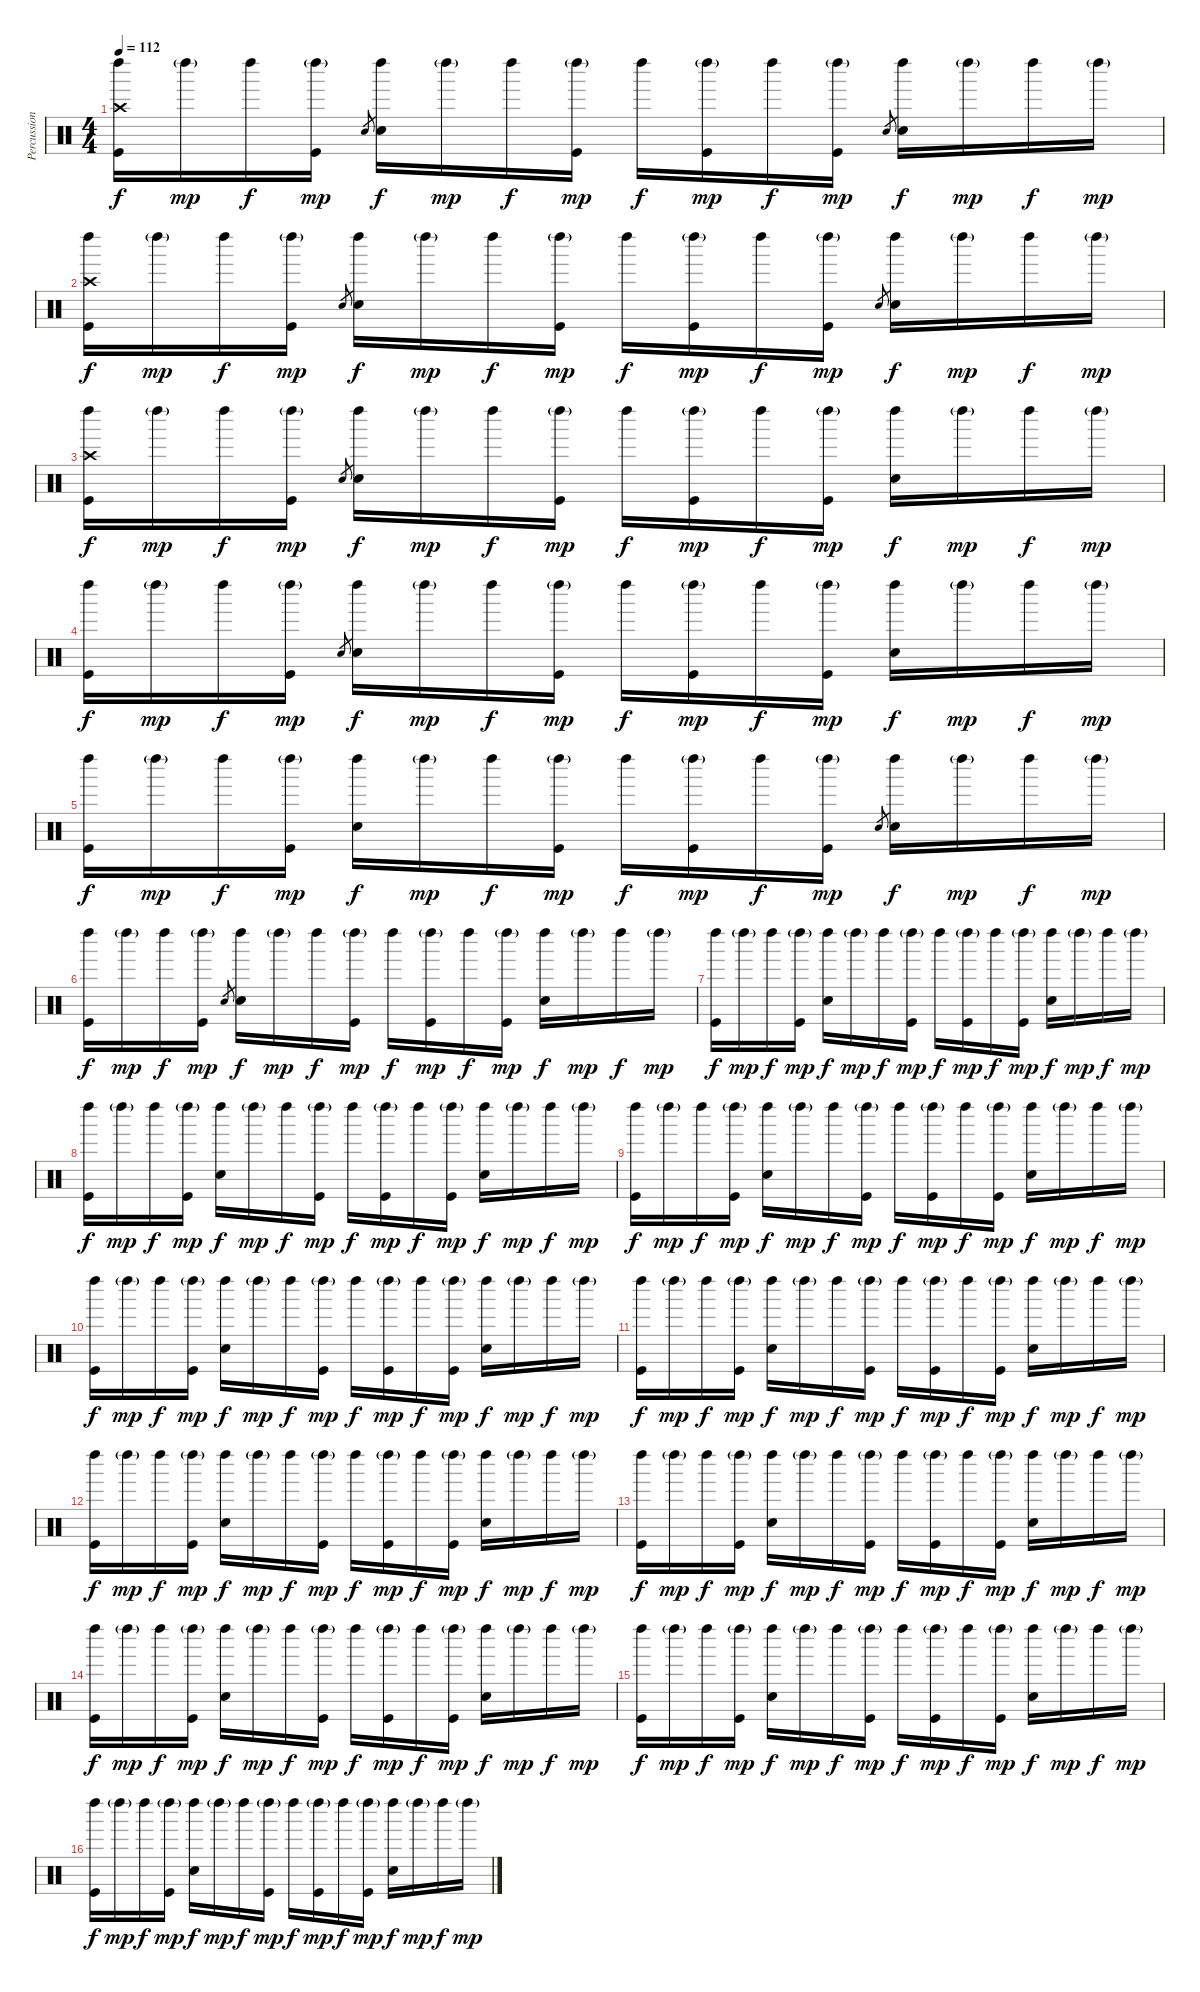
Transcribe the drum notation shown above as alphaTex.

\track ("Percussion" "Percussion") {instrument percussion}
\staff {score}
\articulation defaults
\ts (4 4)
\tempo 112
\clef neutral
\ks c
("Crash high (hit)" "Left Maraca (hit)" "Kick (hit)").16{dy f} "Left Maraca (hit)"{g}.16{dy mp} "Left Maraca (hit)".16{dy f} ("Left Maraca (hit)"{g} "Kick (hit)").16{dy mp} "Snare (hit) 2".8{gr} ("Left Maraca (hit)" "Snare (hit) 2").16{dy f} "Left Maraca (hit)"{g}.16{dy mp} "Left Maraca (hit)".16{dy f} ("Left Maraca (hit)"{g} "Kick (hit)").16{dy mp} "Left Maraca (hit)".16{dy f} ("Left Maraca (hit)"{g} "Kick (hit)").16{dy mp} "Left Maraca (hit)".16{dy f} ("Left Maraca (hit)"{g} "Kick (hit)").16{dy mp} "Snare (hit) 2".8{gr} ("Left Maraca (hit)" "Snare (hit) 2").16{dy f} "Left Maraca (hit)"{g}.16{dy mp} "Left Maraca (hit)".16{dy f} "Left Maraca (hit)"{g}.16{dy mp} |
("Crash high (hit)" "Left Maraca (hit)" "Kick (hit)").16{dy f} "Left Maraca (hit)"{g}.16{dy mp} "Left Maraca (hit)".16{dy f} ("Left Maraca (hit)"{g} "Kick (hit)").16{dy mp} "Snare (hit) 2".8{gr} ("Left Maraca (hit)" "Snare (hit) 2").16{dy f} "Left Maraca (hit)"{g}.16{dy mp} "Left Maraca (hit)".16{dy f} ("Left Maraca (hit)"{g} "Kick (hit)").16{dy mp} "Left Maraca (hit)".16{dy f} ("Left Maraca (hit)"{g} "Kick (hit)").16{dy mp} "Left Maraca (hit)".16{dy f} ("Left Maraca (hit)"{g} "Kick (hit)").16{dy mp} "Snare (hit) 2".8{gr} ("Left Maraca (hit)" "Snare (hit) 2").16{dy f} "Left Maraca (hit)"{g}.16{dy mp} "Left Maraca (hit)".16{dy f} "Left Maraca (hit)"{g}.16{dy mp} |
("Crash high (hit)" "Left Maraca (hit)" "Kick (hit)").16{dy f} "Left Maraca (hit)"{g}.16{dy mp} "Left Maraca (hit)".16{dy f} ("Left Maraca (hit)"{g} "Kick (hit)").16{dy mp} "Snare (hit) 2".8{gr} ("Left Maraca (hit)" "Snare (hit) 2").16{dy f} "Left Maraca (hit)"{g}.16{dy mp} "Left Maraca (hit)".16{dy f} ("Left Maraca (hit)"{g} "Kick (hit)").16{dy mp} "Left Maraca (hit)".16{dy f} ("Left Maraca (hit)"{g} "Kick (hit)").16{dy mp} "Left Maraca (hit)".16{dy f} ("Left Maraca (hit)"{g} "Kick (hit)").16{dy mp} ("Left Maraca (hit)" "Snare (hit) 2").16{dy f} "Left Maraca (hit)"{g}.16{dy mp} "Left Maraca (hit)".16{dy f} "Left Maraca (hit)"{g}.16{dy mp} |
("Left Maraca (hit)" "Kick (hit)").16{dy f} "Left Maraca (hit)"{g}.16{dy mp} "Left Maraca (hit)".16{dy f} ("Left Maraca (hit)"{g} "Kick (hit)").16{dy mp} "Snare (hit) 2".8{gr} ("Left Maraca (hit)" "Snare (hit) 2").16{dy f} "Left Maraca (hit)"{g}.16{dy mp} "Left Maraca (hit)".16{dy f} ("Left Maraca (hit)"{g} "Kick (hit)").16{dy mp} "Left Maraca (hit)".16{dy f} ("Left Maraca (hit)"{g} "Kick (hit)").16{dy mp} "Left Maraca (hit)".16{dy f} ("Left Maraca (hit)"{g} "Kick (hit)").16{dy mp} ("Left Maraca (hit)" "Snare (hit) 2").16{dy f} "Left Maraca (hit)"{g}.16{dy mp} "Left Maraca (hit)".16{dy f} "Left Maraca (hit)"{g}.16{dy mp} |
("Left Maraca (hit)" "Kick (hit)").16{dy f} "Left Maraca (hit)"{g}.16{dy mp} "Left Maraca (hit)".16{dy f} ("Left Maraca (hit)"{g} "Kick (hit)").16{dy mp} ("Left Maraca (hit)" "Snare (hit) 2").16{dy f} "Left Maraca (hit)"{g}.16{dy mp} "Left Maraca (hit)".16{dy f} ("Left Maraca (hit)"{g} "Kick (hit)").16{dy mp} "Left Maraca (hit)".16{dy f} ("Left Maraca (hit)"{g} "Kick (hit)").16{dy mp} "Left Maraca (hit)".16{dy f} ("Left Maraca (hit)"{g} "Kick (hit)").16{dy mp} "Snare (hit) 2".8{gr} ("Left Maraca (hit)" "Snare (hit) 2").16{dy f} "Left Maraca (hit)"{g}.16{dy mp} "Left Maraca (hit)".16{dy f} "Left Maraca (hit)"{g}.16{dy mp} |
("Left Maraca (hit)" "Kick (hit)").16{dy f} "Left Maraca (hit)"{g}.16{dy mp} "Left Maraca (hit)".16{dy f} ("Left Maraca (hit)"{g} "Kick (hit)").16{dy mp} "Snare (hit) 2".8{gr} ("Left Maraca (hit)" "Snare (hit) 2").16{dy f} "Left Maraca (hit)"{g}.16{dy mp} "Left Maraca (hit)".16{dy f} ("Left Maraca (hit)"{g} "Kick (hit)").16{dy mp} "Left Maraca (hit)".16{dy f} ("Left Maraca (hit)"{g} "Kick (hit)").16{dy mp} "Left Maraca (hit)".16{dy f} ("Left Maraca (hit)"{g} "Kick (hit)").16{dy mp} ("Left Maraca (hit)" "Snare (hit) 2").16{dy f} "Left Maraca (hit)"{g}.16{dy mp} "Left Maraca (hit)".16{dy f} "Left Maraca (hit)"{g}.16{dy mp} |
("Left Maraca (hit)" "Kick (hit)").16{dy f} "Left Maraca (hit)"{g}.16{dy mp} "Left Maraca (hit)".16{dy f} ("Left Maraca (hit)"{g} "Kick (hit)").16{dy mp} ("Left Maraca (hit)" "Snare (hit) 2").16{dy f} "Left Maraca (hit)"{g}.16{dy mp} "Left Maraca (hit)".16{dy f} ("Left Maraca (hit)"{g} "Kick (hit)").16{dy mp} "Left Maraca (hit)".16{dy f} ("Left Maraca (hit)"{g} "Kick (hit)").16{dy mp} "Left Maraca (hit)".16{dy f} ("Left Maraca (hit)"{g} "Kick (hit)").16{dy mp} ("Left Maraca (hit)" "Snare (hit) 2").16{dy f} "Left Maraca (hit)"{g}.16{dy mp} "Left Maraca (hit)".16{dy f} "Left Maraca (hit)"{g}.16{dy mp} |
("Left Maraca (hit)" "Kick (hit)").16{dy f} "Left Maraca (hit)"{g}.16{dy mp} "Left Maraca (hit)".16{dy f} ("Left Maraca (hit)"{g} "Kick (hit)").16{dy mp} ("Left Maraca (hit)" "Snare (hit) 2").16{dy f} "Left Maraca (hit)"{g}.16{dy mp} "Left Maraca (hit)".16{dy f} ("Left Maraca (hit)"{g} "Kick (hit)").16{dy mp} "Left Maraca (hit)".16{dy f} ("Left Maraca (hit)"{g} "Kick (hit)").16{dy mp} "Left Maraca (hit)".16{dy f} ("Left Maraca (hit)"{g} "Kick (hit)").16{dy mp} ("Left Maraca (hit)" "Snare (hit) 2").16{dy f} "Left Maraca (hit)"{g}.16{dy mp} "Left Maraca (hit)".16{dy f} "Left Maraca (hit)"{g}.16{dy mp} |
("Left Maraca (hit)" "Kick (hit)").16{dy f} "Left Maraca (hit)"{g}.16{dy mp} "Left Maraca (hit)".16{dy f} ("Left Maraca (hit)"{g} "Kick (hit)").16{dy mp} ("Left Maraca (hit)" "Snare (hit) 2").16{dy f} "Left Maraca (hit)"{g}.16{dy mp} "Left Maraca (hit)".16{dy f} ("Left Maraca (hit)"{g} "Kick (hit)").16{dy mp} "Left Maraca (hit)".16{dy f} ("Left Maraca (hit)"{g} "Kick (hit)").16{dy mp} "Left Maraca (hit)".16{dy f} ("Left Maraca (hit)"{g} "Kick (hit)").16{dy mp} ("Left Maraca (hit)" "Snare (hit) 2").16{dy f} "Left Maraca (hit)"{g}.16{dy mp} "Left Maraca (hit)".16{dy f} "Left Maraca (hit)"{g}.16{dy mp} |
("Left Maraca (hit)" "Kick (hit)").16{dy f} "Left Maraca (hit)"{g}.16{dy mp} "Left Maraca (hit)".16{dy f} ("Left Maraca (hit)"{g} "Kick (hit)").16{dy mp} ("Left Maraca (hit)" "Snare (hit) 2").16{dy f} "Left Maraca (hit)"{g}.16{dy mp} "Left Maraca (hit)".16{dy f} ("Left Maraca (hit)"{g} "Kick (hit)").16{dy mp} "Left Maraca (hit)".16{dy f} ("Left Maraca (hit)"{g} "Kick (hit)").16{dy mp} "Left Maraca (hit)".16{dy f} ("Left Maraca (hit)"{g} "Kick (hit)").16{dy mp} ("Left Maraca (hit)" "Snare (hit) 2").16{dy f} "Left Maraca (hit)"{g}.16{dy mp} "Left Maraca (hit)".16{dy f} "Left Maraca (hit)"{g}.16{dy mp} |
("Left Maraca (hit)" "Kick (hit)").16{dy f} "Left Maraca (hit)"{g}.16{dy mp} "Left Maraca (hit)".16{dy f} ("Left Maraca (hit)"{g} "Kick (hit)").16{dy mp} ("Left Maraca (hit)" "Snare (hit) 2").16{dy f} "Left Maraca (hit)"{g}.16{dy mp} "Left Maraca (hit)".16{dy f} ("Left Maraca (hit)"{g} "Kick (hit)").16{dy mp} "Left Maraca (hit)".16{dy f} ("Left Maraca (hit)"{g} "Kick (hit)").16{dy mp} "Left Maraca (hit)".16{dy f} ("Left Maraca (hit)"{g} "Kick (hit)").16{dy mp} ("Left Maraca (hit)" "Snare (hit) 2").16{dy f} "Left Maraca (hit)"{g}.16{dy mp} "Left Maraca (hit)".16{dy f} "Left Maraca (hit)"{g}.16{dy mp} |
("Left Maraca (hit)" "Kick (hit)").16{dy f} "Left Maraca (hit)"{g}.16{dy mp} "Left Maraca (hit)".16{dy f} ("Left Maraca (hit)"{g} "Kick (hit)").16{dy mp} ("Left Maraca (hit)" "Snare (hit) 2").16{dy f} "Left Maraca (hit)"{g}.16{dy mp} "Left Maraca (hit)".16{dy f} ("Left Maraca (hit)"{g} "Kick (hit)").16{dy mp} "Left Maraca (hit)".16{dy f} ("Left Maraca (hit)"{g} "Kick (hit)").16{dy mp} "Left Maraca (hit)".16{dy f} ("Left Maraca (hit)"{g} "Kick (hit)").16{dy mp} ("Left Maraca (hit)" "Snare (hit) 2").16{dy f} "Left Maraca (hit)"{g}.16{dy mp} "Left Maraca (hit)".16{dy f} "Left Maraca (hit)"{g}.16{dy mp} |
("Left Maraca (hit)" "Kick (hit)").16{dy f} "Left Maraca (hit)"{g}.16{dy mp} "Left Maraca (hit)".16{dy f} ("Left Maraca (hit)"{g} "Kick (hit)").16{dy mp} ("Left Maraca (hit)" "Snare (hit) 2").16{dy f} "Left Maraca (hit)"{g}.16{dy mp} "Left Maraca (hit)".16{dy f} ("Left Maraca (hit)"{g} "Kick (hit)").16{dy mp} "Left Maraca (hit)".16{dy f} ("Left Maraca (hit)"{g} "Kick (hit)").16{dy mp} "Left Maraca (hit)".16{dy f} ("Left Maraca (hit)"{g} "Kick (hit)").16{dy mp} ("Left Maraca (hit)" "Snare (hit) 2").16{dy f} "Left Maraca (hit)"{g}.16{dy mp} "Left Maraca (hit)".16{dy f} "Left Maraca (hit)"{g}.16{dy mp} |
("Left Maraca (hit)" "Kick (hit)").16{dy f} "Left Maraca (hit)"{g}.16{dy mp} "Left Maraca (hit)".16{dy f} ("Left Maraca (hit)"{g} "Kick (hit)").16{dy mp} ("Left Maraca (hit)" "Snare (hit) 2").16{dy f} "Left Maraca (hit)"{g}.16{dy mp} "Left Maraca (hit)".16{dy f} ("Left Maraca (hit)"{g} "Kick (hit)").16{dy mp} "Left Maraca (hit)".16{dy f} ("Left Maraca (hit)"{g} "Kick (hit)").16{dy mp} "Left Maraca (hit)".16{dy f} ("Left Maraca (hit)"{g} "Kick (hit)").16{dy mp} ("Left Maraca (hit)" "Snare (hit) 2").16{dy f} "Left Maraca (hit)"{g}.16{dy mp} "Left Maraca (hit)".16{dy f} "Left Maraca (hit)"{g}.16{dy mp} |
("Left Maraca (hit)" "Kick (hit)").16{dy f} "Left Maraca (hit)"{g}.16{dy mp} "Left Maraca (hit)".16{dy f} ("Left Maraca (hit)"{g} "Kick (hit)").16{dy mp} ("Left Maraca (hit)" "Snare (hit) 2").16{dy f} "Left Maraca (hit)"{g}.16{dy mp} "Left Maraca (hit)".16{dy f} ("Left Maraca (hit)"{g} "Kick (hit)").16{dy mp} "Left Maraca (hit)".16{dy f} ("Left Maraca (hit)"{g} "Kick (hit)").16{dy mp} "Left Maraca (hit)".16{dy f} ("Left Maraca (hit)"{g} "Kick (hit)").16{dy mp} ("Left Maraca (hit)" "Snare (hit) 2").16{dy f} "Left Maraca (hit)"{g}.16{dy mp} "Left Maraca (hit)".16{dy f} "Left Maraca (hit)"{g}.16{dy mp} |
("Left Maraca (hit)" "Kick (hit)").16{dy f} "Left Maraca (hit)"{g}.16{dy mp} "Left Maraca (hit)".16{dy f} ("Left Maraca (hit)"{g} "Kick (hit)").16{dy mp} ("Left Maraca (hit)" "Snare (hit) 2").16{dy f} "Left Maraca (hit)"{g}.16{dy mp} "Left Maraca (hit)".16{dy f} ("Left Maraca (hit)"{g} "Kick (hit)").16{dy mp} "Left Maraca (hit)".16{dy f} ("Left Maraca (hit)"{g} "Kick (hit)").16{dy mp} "Left Maraca (hit)".16{dy f} ("Left Maraca (hit)"{g} "Kick (hit)").16{dy mp} ("Left Maraca (hit)" "Snare (hit) 2").16{dy f} "Left Maraca (hit)"{g}.16{dy mp} "Left Maraca (hit)".16{dy f} "Left Maraca (hit)"{g}.16{dy mp}
